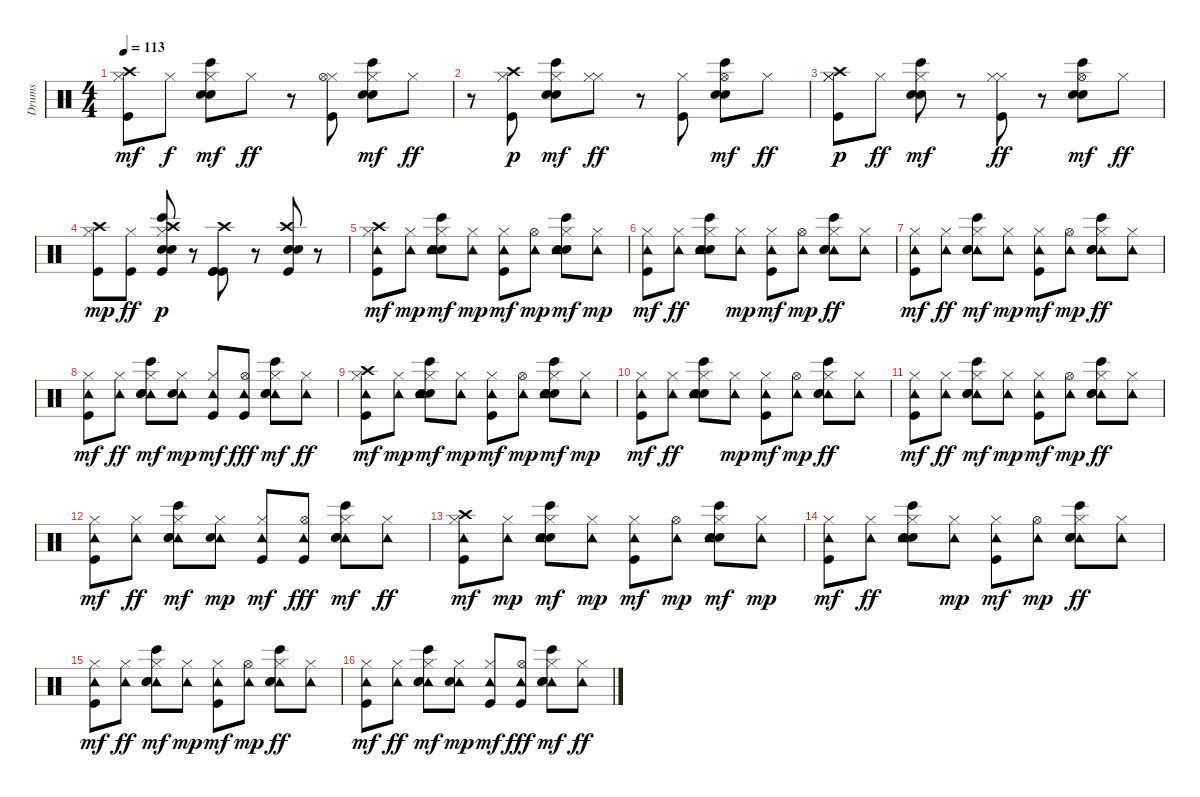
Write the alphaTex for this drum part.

\track ("Drums" "Drums") {instrument percussion}
\staff {score}
\articulation defaults
\ts (4 4)
\tempo 113
\clef neutral
\ks c
("Kick (hit)" "Hi-Hat (closed)" "Crash high (hit)").8{dy mf} "Hi-Hat (closed)".8{dy f} ("Hi-Hat (closed)" "Bongo High (hit)" "Snare (hit) 2" "Hand Clap (hit)").8{dy mf} "Hi-Hat (closed)".8{dy ff} r.8 ("Kick (hit)" "Hi-Hat (closed)" "Hi-Hat (open)").8 ("Hi-Hat (closed)" "Bongo High (hit)" "Snare (hit) 2" "Hand Clap (hit)").8{dy mf} "Hi-Hat (closed)".8{dy ff} |
r.8 ("Kick (hit)" "Hi-Hat (closed)" "Crash high (hit)").8{dy p} ("Hi-Hat (closed)" "Bongo High (hit)" "Snare (hit) 2" "Hand Clap (hit)").8{dy mf} ("Hi-Hat (closed)" "Hi-Hat (closed)").8{dy ff} r.8 ("Kick (hit)" "Hi-Hat (closed)").8 ("Hi-Hat (open)" "Bongo High (hit)" "Snare (hit) 2" "Hand Clap (hit)").8{dy mf} "Hi-Hat (closed)".8{dy ff} |
("Hi-Hat (closed)" "Kick (hit)" "Hi-Hat (closed)" "Crash high (hit)").8{dy p} "Hi-Hat (closed)".8{dy ff} ("Hi-Hat (closed)" "Bongo High (hit)" "Snare (hit) 2" "Hand Clap (hit)").8{dy mf} r.8 ("Hi-Hat (closed)" "Kick (hit)" "Hi-Hat (closed)").8{dy ff} r.8 ("Hi-Hat (open)" "Bongo High (hit)" "Snare (hit) 2" "Hand Clap (hit)").8{dy mf} "Hi-Hat (closed)".8{dy ff} |
("Hi-Hat (closed)" "Kick (hit)" "Crash high (hit)").8{dy mp} ("Hi-Hat (closed)" "Kick (hit)").8{dy ff} ("Kick (hit)" "Hi-Hat (closed)" "Bongo High (hit)" "Snare (hit) 2" "Hand Clap (hit)" "Crash high (hit)").8{dy p} r.8 ("Kick (hit)" "Kick (hit)" "Kick (hit)" "Crash high (hit)").8 r.8 ("Kick (hit)" "Snare (hit) 2" "Hand Clap (hit)" "Crash high (hit)").8 r.8 |
("Kick (hit)" "Hi-Hat (closed)" "Crash high (hit)" "Tambourine (hit)").8{dy mf} ("Tambourine (hit)" "Hi-Hat (closed)").8{dy mp} ("Hi-Hat (closed)" "Bongo High (hit)" "Snare (hit) 2" "Hand Clap (hit)" "Tambourine (hit)").8{dy mf} ("Hi-Hat (closed)" "Tambourine (hit)").8{dy mp} ("Kick (hit)" "Hi-Hat (closed)" "Tambourine (hit)").8{dy mf} ("Tambourine (hit)" "Hi-Hat (open)").8{dy mp} ("Hi-Hat (closed)" "Bongo High (hit)" "Snare (hit) 2" "Hand Clap (hit)" "Tambourine (hit)").8{dy mf} ("Hi-Hat (closed)" "Tambourine (hit)").8{dy mp} |
("Kick (hit)" "Hi-Hat (closed)" "Tambourine (hit)").8{dy mf} ("Tambourine (hit)" "Hi-Hat (closed)").8{dy ff} ("Bongo High (hit)" "Snare (hit) 2" "Hand Clap (hit)" "Tambourine (hit)" "Hi-Hat (closed)").8 ("Hi-Hat (closed)" "Tambourine (hit)").8{dy mp} ("Kick (hit)" "Hi-Hat (closed)" "Tambourine (hit)").8{dy mf} ("Tambourine (hit)" "Hi-Hat (open)").8{dy mp} ("Tambourine (hit)" "Bongo High (hit)" "Snare (hit) 2" "Hand Clap (hit)" "Hi-Hat (closed)").8{dy ff} ("Tambourine (hit)" "Hi-Hat (closed)").8 |
("Kick (hit)" "Hi-Hat (closed)" "Tambourine (hit)").8{dy mf} ("Tambourine (hit)" "Hi-Hat (closed)").8{dy ff} ("Tambourine (hit)" "Hi-Hat (closed)" "Bongo High (hit)" "Snare (hit) 2" "Hand Clap (hit)").8{dy mf} ("Hi-Hat (closed)" "Tambourine (hit)").8{dy mp} ("Kick (hit)" "Hi-Hat (closed)" "Tambourine (hit)").8{dy mf} ("Tambourine (hit)" "Hi-Hat (open)").8{dy mp} ("Tambourine (hit)" "Bongo High (hit)" "Snare (hit) 2" "Hand Clap (hit)" "Hi-Hat (closed)").8{dy ff} ("Tambourine (hit)" "Hi-Hat (closed)").8 |
("Kick (hit)" "Hi-Hat (closed)" "Tambourine (hit)").8{dy mf} ("Tambourine (hit)" "Hi-Hat (closed)").8{dy ff} ("Hi-Hat (closed)" "Tambourine (hit)" "Bongo High (hit)" "Snare (hit) 2" "Hand Clap (hit)").8{dy mf} ("Hi-Hat (closed)" "Tambourine (hit)" "Snare (hit) 2").8{dy mp} ("Kick (hit)" "Hi-Hat (closed)" "Tambourine (hit)").8{dy mf} ("Hi-Hat (open)" "Tambourine (hit)" "Kick (hit)").8{dy fff} ("Hi-Hat (closed)" "Tambourine (hit)" "Bongo High (hit)" "Snare (hit) 2" "Hand Clap (hit)").8{dy mf} ("Tambourine (hit)" "Hi-Hat (closed)").8{dy ff} |
("Kick (hit)" "Hi-Hat (closed)" "Crash high (hit)" "Tambourine (hit)").8{dy mf} ("Tambourine (hit)" "Hi-Hat (closed)").8{dy mp} ("Hi-Hat (closed)" "Bongo High (hit)" "Snare (hit) 2" "Hand Clap (hit)" "Tambourine (hit)").8{dy mf} ("Hi-Hat (closed)" "Tambourine (hit)").8{dy mp} ("Kick (hit)" "Hi-Hat (closed)" "Tambourine (hit)").8{dy mf} ("Tambourine (hit)" "Hi-Hat (open)").8{dy mp} ("Hi-Hat (closed)" "Bongo High (hit)" "Snare (hit) 2" "Hand Clap (hit)" "Tambourine (hit)").8{dy mf} ("Hi-Hat (closed)" "Tambourine (hit)").8{dy mp} |
("Kick (hit)" "Hi-Hat (closed)" "Tambourine (hit)").8{dy mf} ("Tambourine (hit)" "Hi-Hat (closed)").8{dy ff} ("Bongo High (hit)" "Snare (hit) 2" "Hand Clap (hit)" "Tambourine (hit)" "Hi-Hat (closed)").8 ("Hi-Hat (closed)" "Tambourine (hit)").8{dy mp} ("Kick (hit)" "Hi-Hat (closed)" "Tambourine (hit)").8{dy mf} ("Tambourine (hit)" "Hi-Hat (open)").8{dy mp} ("Tambourine (hit)" "Bongo High (hit)" "Snare (hit) 2" "Hand Clap (hit)" "Hi-Hat (closed)").8{dy ff} ("Tambourine (hit)" "Hi-Hat (closed)").8 |
("Kick (hit)" "Hi-Hat (closed)" "Tambourine (hit)").8{dy mf} ("Tambourine (hit)" "Hi-Hat (closed)").8{dy ff} ("Tambourine (hit)" "Hi-Hat (closed)" "Bongo High (hit)" "Snare (hit) 2" "Hand Clap (hit)").8{dy mf} ("Hi-Hat (closed)" "Tambourine (hit)").8{dy mp} ("Kick (hit)" "Hi-Hat (closed)" "Tambourine (hit)").8{dy mf} ("Tambourine (hit)" "Hi-Hat (open)").8{dy mp} ("Tambourine (hit)" "Bongo High (hit)" "Snare (hit) 2" "Hand Clap (hit)" "Hi-Hat (closed)").8{dy ff} ("Tambourine (hit)" "Hi-Hat (closed)").8 |
("Kick (hit)" "Hi-Hat (closed)" "Tambourine (hit)").8{dy mf} ("Tambourine (hit)" "Hi-Hat (closed)").8{dy ff} ("Hi-Hat (closed)" "Tambourine (hit)" "Bongo High (hit)" "Snare (hit) 2" "Hand Clap (hit)").8{dy mf} ("Hi-Hat (closed)" "Tambourine (hit)" "Snare (hit) 2").8{dy mp} ("Kick (hit)" "Hi-Hat (closed)" "Tambourine (hit)").8{dy mf} ("Hi-Hat (open)" "Tambourine (hit)" "Kick (hit)").8{dy fff} ("Hi-Hat (closed)" "Tambourine (hit)" "Bongo High (hit)" "Snare (hit) 2" "Hand Clap (hit)").8{dy mf} ("Tambourine (hit)" "Hi-Hat (closed)").8{dy ff} |
("Kick (hit)" "Hi-Hat (closed)" "Crash high (hit)" "Tambourine (hit)").8{dy mf} ("Tambourine (hit)" "Hi-Hat (closed)").8{dy mp} ("Hi-Hat (closed)" "Bongo High (hit)" "Snare (hit) 2" "Hand Clap (hit)" "Tambourine (hit)").8{dy mf} ("Hi-Hat (closed)" "Tambourine (hit)").8{dy mp} ("Kick (hit)" "Hi-Hat (closed)" "Tambourine (hit)").8{dy mf} ("Tambourine (hit)" "Hi-Hat (open)").8{dy mp} ("Hi-Hat (closed)" "Bongo High (hit)" "Snare (hit) 2" "Hand Clap (hit)" "Tambourine (hit)").8{dy mf} ("Hi-Hat (closed)" "Tambourine (hit)").8{dy mp} |
("Kick (hit)" "Hi-Hat (closed)" "Tambourine (hit)").8{dy mf} ("Tambourine (hit)" "Hi-Hat (closed)").8{dy ff} ("Bongo High (hit)" "Snare (hit) 2" "Hand Clap (hit)" "Tambourine (hit)" "Hi-Hat (closed)").8 ("Hi-Hat (closed)" "Tambourine (hit)").8{dy mp} ("Kick (hit)" "Hi-Hat (closed)" "Tambourine (hit)").8{dy mf} ("Tambourine (hit)" "Hi-Hat (open)").8{dy mp} ("Tambourine (hit)" "Bongo High (hit)" "Snare (hit) 2" "Hand Clap (hit)" "Hi-Hat (closed)").8{dy ff} ("Tambourine (hit)" "Hi-Hat (closed)").8 |
("Kick (hit)" "Hi-Hat (closed)" "Tambourine (hit)").8{dy mf} ("Tambourine (hit)" "Hi-Hat (closed)").8{dy ff} ("Tambourine (hit)" "Hi-Hat (closed)" "Bongo High (hit)" "Snare (hit) 2" "Hand Clap (hit)").8{dy mf} ("Hi-Hat (closed)" "Tambourine (hit)").8{dy mp} ("Kick (hit)" "Hi-Hat (closed)" "Tambourine (hit)").8{dy mf} ("Tambourine (hit)" "Hi-Hat (open)").8{dy mp} ("Tambourine (hit)" "Bongo High (hit)" "Snare (hit) 2" "Hand Clap (hit)" "Hi-Hat (closed)").8{dy ff} ("Tambourine (hit)" "Hi-Hat (closed)").8 |
("Kick (hit)" "Hi-Hat (closed)" "Tambourine (hit)").8{dy mf} ("Tambourine (hit)" "Hi-Hat (closed)").8{dy ff} ("Hi-Hat (closed)" "Tambourine (hit)" "Bongo High (hit)" "Snare (hit) 2" "Hand Clap (hit)").8{dy mf} ("Hi-Hat (closed)" "Tambourine (hit)" "Snare (hit) 2").8{dy mp} ("Kick (hit)" "Hi-Hat (closed)" "Tambourine (hit)").8{dy mf} ("Hi-Hat (open)" "Tambourine (hit)" "Kick (hit)").8{dy fff} ("Hi-Hat (closed)" "Tambourine (hit)" "Bongo High (hit)" "Snare (hit) 2" "Hand Clap (hit)").8{dy mf} ("Tambourine (hit)" "Hi-Hat (closed)").8{dy ff}
